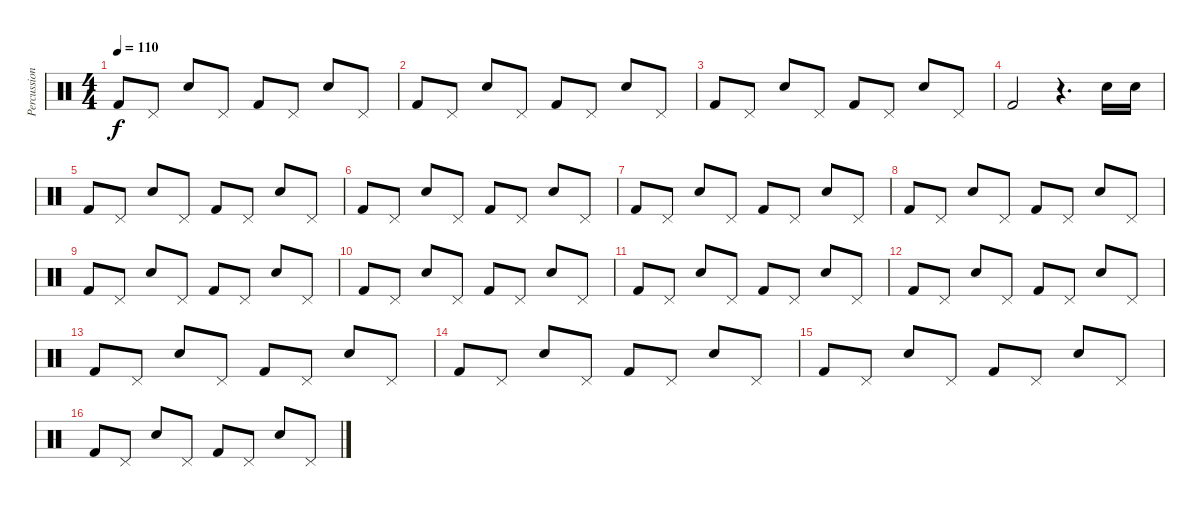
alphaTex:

\track ("Percussion" "Percussion") {instrument percussion}
\staff {score}
\articulation defaults
\ts (4 4)
\tempo 110
\clef neutral
\ks c "Kick (hit) 2".8{dy f} "Pedal Hi-Hat (hit)".8 "Snare (hit) 2".8 "Pedal Hi-Hat (hit)".8 "Kick (hit) 2".8 "Pedal Hi-Hat (hit)".8 "Snare (hit) 2".8 "Pedal Hi-Hat (hit)".8
|
"Kick (hit) 2".8 "Pedal Hi-Hat (hit)".8 "Snare (hit) 2".8 "Pedal Hi-Hat (hit)".8 "Kick (hit) 2".8 "Pedal Hi-Hat (hit)".8 "Snare (hit) 2".8 "Pedal Hi-Hat (hit)".8 |
"Kick (hit) 2".8 "Pedal Hi-Hat (hit)".8 "Snare (hit) 2".8 "Pedal Hi-Hat (hit)".8 "Kick (hit) 2".8 "Pedal Hi-Hat (hit)".8 "Snare (hit) 2".8 "Pedal Hi-Hat (hit)".8 |
"Kick (hit) 2".2 r.4{d} "Snare (hit) 2".16 "Snare (hit) 2".16 |
"Kick (hit) 2".8 "Pedal Hi-Hat (hit)".8 "Snare (hit) 2".8 "Pedal Hi-Hat (hit)".8 "Kick (hit) 2".8 "Pedal Hi-Hat (hit)".8 "Snare (hit) 2".8 "Pedal Hi-Hat (hit)".8 |
"Kick (hit) 2".8 "Pedal Hi-Hat (hit)".8 "Snare (hit) 2".8 "Pedal Hi-Hat (hit)".8 "Kick (hit) 2".8 "Pedal Hi-Hat (hit)".8 "Snare (hit) 2".8 "Pedal Hi-Hat (hit)".8 |
"Kick (hit) 2".8 "Pedal Hi-Hat (hit)".8 "Snare (hit) 2".8 "Pedal Hi-Hat (hit)".8 "Kick (hit) 2".8 "Pedal Hi-Hat (hit)".8 "Snare (hit) 2".8 "Pedal Hi-Hat (hit)".8 |
"Kick (hit) 2".8 "Pedal Hi-Hat (hit)".8 "Snare (hit) 2".8 "Pedal Hi-Hat (hit)".8 "Kick (hit) 2".8 "Pedal Hi-Hat (hit)".8 "Snare (hit) 2".8 "Pedal Hi-Hat (hit)".8 |
"Kick (hit) 2".8 "Pedal Hi-Hat (hit)".8 "Snare (hit) 2".8 "Pedal Hi-Hat (hit)".8 "Kick (hit) 2".8 "Pedal Hi-Hat (hit)".8 "Snare (hit) 2".8 "Pedal Hi-Hat (hit)".8 |
"Kick (hit) 2".8 "Pedal Hi-Hat (hit)".8 "Snare (hit) 2".8 "Pedal Hi-Hat (hit)".8 "Kick (hit) 2".8 "Pedal Hi-Hat (hit)".8 "Snare (hit) 2".8 "Pedal Hi-Hat (hit)".8 |
"Kick (hit) 2".8 "Pedal Hi-Hat (hit)".8 "Snare (hit) 2".8 "Pedal Hi-Hat (hit)".8 "Kick (hit) 2".8 "Pedal Hi-Hat (hit)".8 "Snare (hit) 2".8 "Pedal Hi-Hat (hit)".8 |
"Kick (hit) 2".8 "Pedal Hi-Hat (hit)".8 "Snare (hit) 2".8 "Pedal Hi-Hat (hit)".8 "Kick (hit) 2".8 "Pedal Hi-Hat (hit)".8 "Snare (hit) 2".8 "Pedal Hi-Hat (hit)".8 |
"Kick (hit) 2".8 "Pedal Hi-Hat (hit)".8 "Snare (hit) 2".8 "Pedal Hi-Hat (hit)".8 "Kick (hit) 2".8 "Pedal Hi-Hat (hit)".8 "Snare (hit) 2".8 "Pedal Hi-Hat (hit)".8 |
"Kick (hit) 2".8 "Pedal Hi-Hat (hit)".8 "Snare (hit) 2".8 "Pedal Hi-Hat (hit)".8 "Kick (hit) 2".8 "Pedal Hi-Hat (hit)".8 "Snare (hit) 2".8 "Pedal Hi-Hat (hit)".8 |
"Kick (hit) 2".8 "Pedal Hi-Hat (hit)".8 "Snare (hit) 2".8 "Pedal Hi-Hat (hit)".8 "Kick (hit) 2".8 "Pedal Hi-Hat (hit)".8 "Snare (hit) 2".8 "Pedal Hi-Hat (hit)".8 |
"Kick (hit) 2".8 "Pedal Hi-Hat (hit)".8 "Snare (hit) 2".8 "Pedal Hi-Hat (hit)".8 "Kick (hit) 2".8 "Pedal Hi-Hat (hit)".8 "Snare (hit) 2".8 "Pedal Hi-Hat (hit)".8
